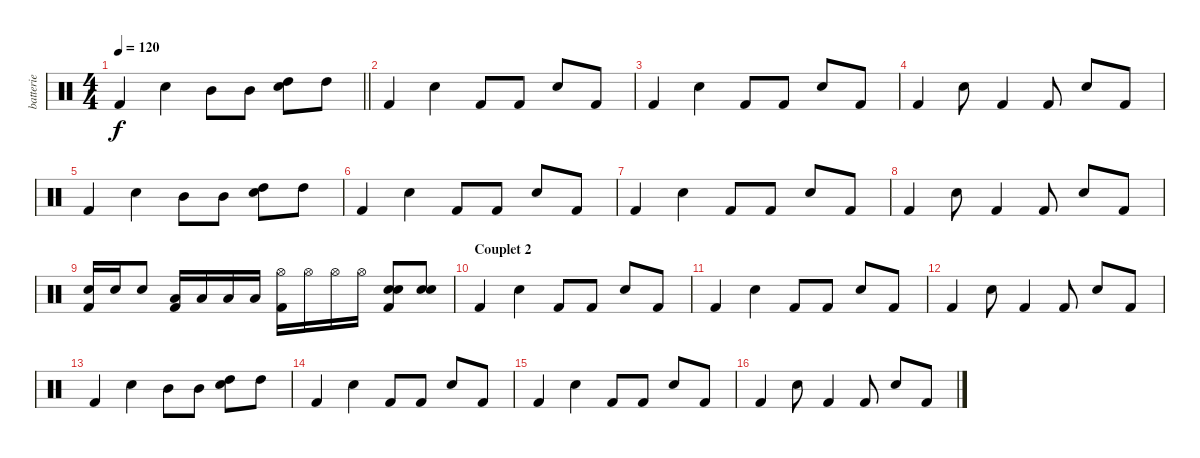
\track ("batterie" "batterie") {instrument percussion}
\staff {score}
\articulation defaults
\ts (4 4)
\tempo 120
\clef neutral
\barLineRight lightlight
\ks c "Kick (hit) 2".4{dy f} "Electric Snare (hit)".4 "Mid Tom (hit)".8 "Mid Tom (hit)".8
("Electric Snare (hit)" "High Tom (hit)").8 "High Tom (hit)".8 |
"Kick (hit) 2".4 "Electric Snare (hit)".4 "Kick (hit) 2".8 "Kick (hit) 2".8 "Electric Snare (hit)".8 "Kick (hit) 2".8 |
"Kick (hit) 2".4 "Electric Snare (hit)".4 "Kick (hit) 2".8 "Kick (hit) 2".8 "Electric Snare (hit)".8 "Kick (hit) 2".8 |
"Kick (hit) 2".4 "Electric Snare (hit)".8 "Kick (hit) 2".4 "Kick (hit) 2".8 "Electric Snare (hit)".8 "Kick (hit) 2".8 |
"Kick (hit) 2".4 "Electric Snare (hit)".4 "Mid Tom (hit)".8 "Mid Tom (hit)".8 ("Electric Snare (hit)" "High Tom (hit)").8 "High Tom (hit)".8 |
"Kick (hit) 2".4 "Electric Snare (hit)".4 "Kick (hit) 2".8 "Kick (hit) 2".8 "Electric Snare (hit)".8 "Kick (hit) 2".8 |
"Kick (hit) 2".4 "Electric Snare (hit)".4 "Kick (hit) 2".8 "Kick (hit) 2".8 "Electric Snare (hit)".8 "Kick (hit) 2".8 |
"Kick (hit) 2".4 "Electric Snare (hit)".8 "Kick (hit) 2".4 "Kick (hit) 2".8 "Electric Snare (hit)".8 "Kick (hit) 2".8 |
("Kick (hit) 2" "Electric Snare (hit)").16 "Electric Snare (hit)".16 "Electric Snare (hit)".8 ("Kick (hit) 2" "Low Tom (hit)").16 "Low Tom (hit)".16 "Low Tom (hit)".16 "Low Tom (hit)".16 ("Kick (hit) 2" "Hi-Hat (open)").16 "Hi-Hat (open)".16 "Hi-Hat (open)".16 "Hi-Hat (open)".16 ("Kick (hit) 2" "Electric Snare (hit)" "Electric Snare (hit)").8 ("Electric Snare (hit)" "Electric Snare (hit)").8 |
\section ("" "Couplet 2")
"Kick (hit) 2".4 "Electric Snare (hit)".4 "Kick (hit) 2".8 "Kick (hit) 2".8 "Electric Snare (hit)".8 "Kick (hit) 2".8 |
"Kick (hit) 2".4 "Electric Snare (hit)".4 "Kick (hit) 2".8 "Kick (hit) 2".8 "Electric Snare (hit)".8 "Kick (hit) 2".8 |
"Kick (hit) 2".4 "Electric Snare (hit)".8 "Kick (hit) 2".4 "Kick (hit) 2".8 "Electric Snare (hit)".8 "Kick (hit) 2".8 |
"Kick (hit) 2".4 "Electric Snare (hit)".4 "Mid Tom (hit)".8 "Mid Tom (hit)".8 ("Electric Snare (hit)" "High Tom (hit)").8 "High Tom (hit)".8 |
"Kick (hit) 2".4 "Electric Snare (hit)".4 "Kick (hit) 2".8 "Kick (hit) 2".8 "Electric Snare (hit)".8 "Kick (hit) 2".8 |
"Kick (hit) 2".4 "Electric Snare (hit)".4 "Kick (hit) 2".8 "Kick (hit) 2".8 "Electric Snare (hit)".8 "Kick (hit) 2".8 |
"Kick (hit) 2".4 "Electric Snare (hit)".8 "Kick (hit) 2".4 "Kick (hit) 2".8 "Electric Snare (hit)".8 "Kick (hit) 2".8
